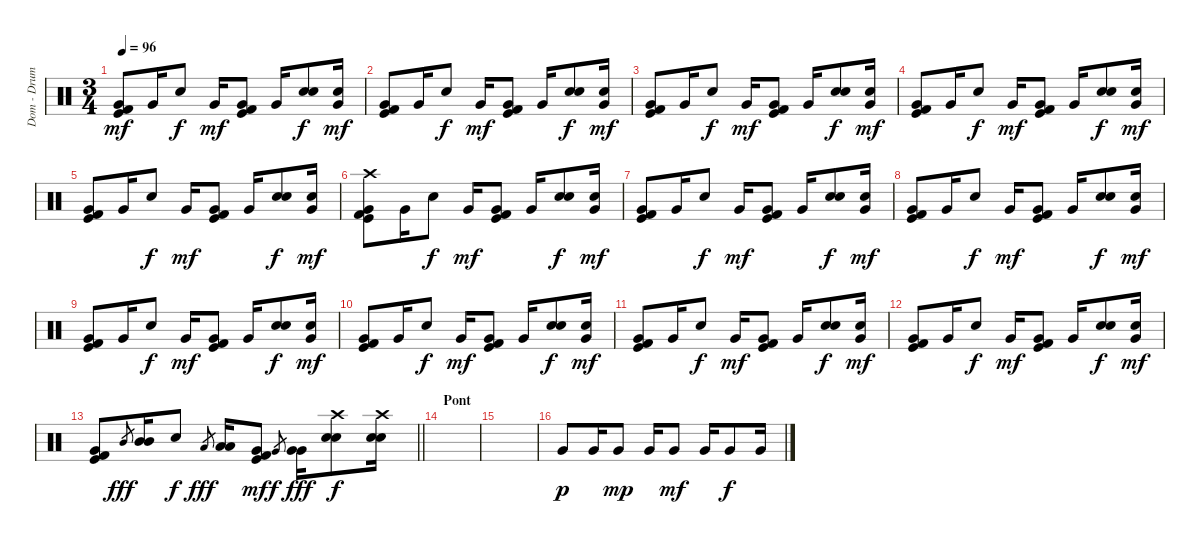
\track ("Dom - Drums" "Dom - Drum") {instrument percussion}
\staff {score}
\articulation defaults
\ts (3 4)
\tempo 96
\clef neutral
\ks c
("Very Low Tom (hit)" "Kick (hit)" "Kick (hit) 2").8{dy mf} "Very Low Tom (hit)".16 "Snare (hit) 2".8{dy f} "Very Low Tom (hit)".16{dy mf} ("Very Low Tom (hit)" "Kick (hit)" "Kick (hit) 2").8 "Very Low Tom (hit)".16 ("Snare (hit) 2" "Hand Clap (hit)").8{dy f} ("Very Low Tom (hit)" "Hand Clap (hit)").16{dy mf} |
("Very Low Tom (hit)" "Kick (hit)" "Kick (hit) 2").8 "Very Low Tom (hit)".16 "Snare (hit) 2".8{dy f} "Very Low Tom (hit)".16{dy mf} ("Very Low Tom (hit)" "Kick (hit)" "Kick (hit) 2").8 "Very Low Tom (hit)".16 ("Snare (hit) 2" "Hand Clap (hit)").8{dy f} ("Very Low Tom (hit)" "Hand Clap (hit)").16{dy mf} |
("Very Low Tom (hit)" "Kick (hit)" "Kick (hit) 2").8 "Very Low Tom (hit)".16 "Snare (hit) 2".8{dy f} "Very Low Tom (hit)".16{dy mf} ("Very Low Tom (hit)" "Kick (hit)" "Kick (hit) 2").8 "Very Low Tom (hit)".16 ("Snare (hit) 2" "Hand Clap (hit)").8{dy f} ("Very Low Tom (hit)" "Hand Clap (hit)").16{dy mf} |
("Very Low Tom (hit)" "Kick (hit)" "Kick (hit) 2").8 "Very Low Tom (hit)".16 "Snare (hit) 2".8{dy f} "Very Low Tom (hit)".16{dy mf} ("Very Low Tom (hit)" "Kick (hit)" "Kick (hit) 2").8 "Very Low Tom (hit)".16 ("Snare (hit) 2" "Hand Clap (hit)").8{dy f} ("Very Low Tom (hit)" "Hand Clap (hit)").16{dy mf} |
("Very Low Tom (hit)" "Kick (hit)" "Kick (hit) 2").8 "Very Low Tom (hit)".16 "Snare (hit) 2".8{dy f} "Very Low Tom (hit)".16{dy mf} ("Very Low Tom (hit)" "Kick (hit)" "Kick (hit) 2").8 "Very Low Tom (hit)".16 ("Snare (hit) 2" "Hand Clap (hit)").8{dy f} ("Very Low Tom (hit)" "Hand Clap (hit)").16{dy mf} |
("Crash high (hit)" "Very Low Tom (hit)" "Kick (hit)" "Kick (hit) 2").8 "Very Low Tom (hit)".16 "Snare (hit) 2".8{dy f} "Very Low Tom (hit)".16{dy mf} ("Very Low Tom (hit)" "Kick (hit)" "Kick (hit) 2").8 "Very Low Tom (hit)".16 ("Snare (hit) 2" "Hand Clap (hit)").8{dy f} ("Very Low Tom (hit)" "Hand Clap (hit)").16{dy mf} |
("Very Low Tom (hit)" "Kick (hit)" "Kick (hit) 2").8 "Very Low Tom (hit)".16 "Snare (hit) 2".8{dy f} "Very Low Tom (hit)".16{dy mf} ("Very Low Tom (hit)" "Kick (hit)" "Kick (hit) 2").8 "Very Low Tom (hit)".16 ("Snare (hit) 2" "Hand Clap (hit)").8{dy f} ("Very Low Tom (hit)" "Hand Clap (hit)").16{dy mf} |
("Very Low Tom (hit)" "Kick (hit)" "Kick (hit) 2").8 "Very Low Tom (hit)".16 "Snare (hit) 2".8{dy f} "Very Low Tom (hit)".16{dy mf} ("Very Low Tom (hit)" "Kick (hit)" "Kick (hit) 2").8 "Very Low Tom (hit)".16 ("Snare (hit) 2" "Hand Clap (hit)").8{dy f} ("Very Low Tom (hit)" "Hand Clap (hit)").16{dy mf} |
("Very Low Tom (hit)" "Kick (hit)" "Kick (hit) 2").8 "Very Low Tom (hit)".16 "Snare (hit) 2".8{dy f} "Very Low Tom (hit)".16{dy mf} ("Very Low Tom (hit)" "Kick (hit)" "Kick (hit) 2").8 "Very Low Tom (hit)".16 ("Snare (hit) 2" "Hand Clap (hit)").8{dy f} ("Very Low Tom (hit)" "Hand Clap (hit)").16{dy mf} |
("Very Low Tom (hit)" "Kick (hit)" "Kick (hit) 2").8 "Very Low Tom (hit)".16 "Snare (hit) 2".8{dy f} "Very Low Tom (hit)".16{dy mf} ("Very Low Tom (hit)" "Kick (hit)" "Kick (hit) 2").8 "Very Low Tom (hit)".16 ("Snare (hit) 2" "Hand Clap (hit)").8{dy f} ("Very Low Tom (hit)" "Hand Clap (hit)").16{dy mf} |
("Very Low Tom (hit)" "Kick (hit)" "Kick (hit) 2").8 "Very Low Tom (hit)".16 "Snare (hit) 2".8{dy f} "Very Low Tom (hit)".16{dy mf} ("Very Low Tom (hit)" "Kick (hit)" "Kick (hit) 2").8 "Very Low Tom (hit)".16 ("Snare (hit) 2" "Hand Clap (hit)").8{dy f} ("Very Low Tom (hit)" "Hand Clap (hit)").16{dy mf} |
("Very Low Tom (hit)" "Kick (hit)" "Kick (hit) 2").8 "Very Low Tom (hit)".16 "Snare (hit) 2".8{dy f} "Very Low Tom (hit)".16{dy mf} ("Very Low Tom (hit)" "Kick (hit)" "Kick (hit) 2").8 "Very Low Tom (hit)".16 ("Snare (hit) 2" "Hand Clap (hit)").8{dy f} ("Very Low Tom (hit)" "Hand Clap (hit)").16{dy mf} |
\barLineRight lightlight
("Very Low Tom (hit)" "Kick (hit)" "Kick (hit) 2").8 "Mid Tom (hit)".8{gr dy fff} ("Mid Tom (hit)" "Mid Tom (hit)").16 "Snare (hit) 2".8{dy f} "Low Tom (hit)".8{gr dy fff} ("Low Tom (hit)" "Low Tom (hit)").16 ("Very Low Tom (hit)" "Kick (hit)" "Kick (hit) 2").8{dy mf} "Very Low Tom (hit)".8{gr dy f} ("Very Low Tom (hit)" "Very Low Tom (hit)").16{dy fff} ("Crash high (hit)" "Snare (hit) 2" "Hand Clap (hit)").8{dy f} ("Crash high (hit)" "Snare (hit) 2" "Hand Clap (hit)").16 |
\section ("" "Pont")
|
|
"Very Low Tom (hit)".8{dy p} "Very Low Tom (hit)".16 "Very Low Tom (hit)".8{dy mp} "Very Low Tom (hit)".16 "Very Low Tom (hit)".8{dy mf} "Very Low Tom (hit)".16 "Very Low Tom (hit)".8{dy f} "Very Low Tom (hit)".16
